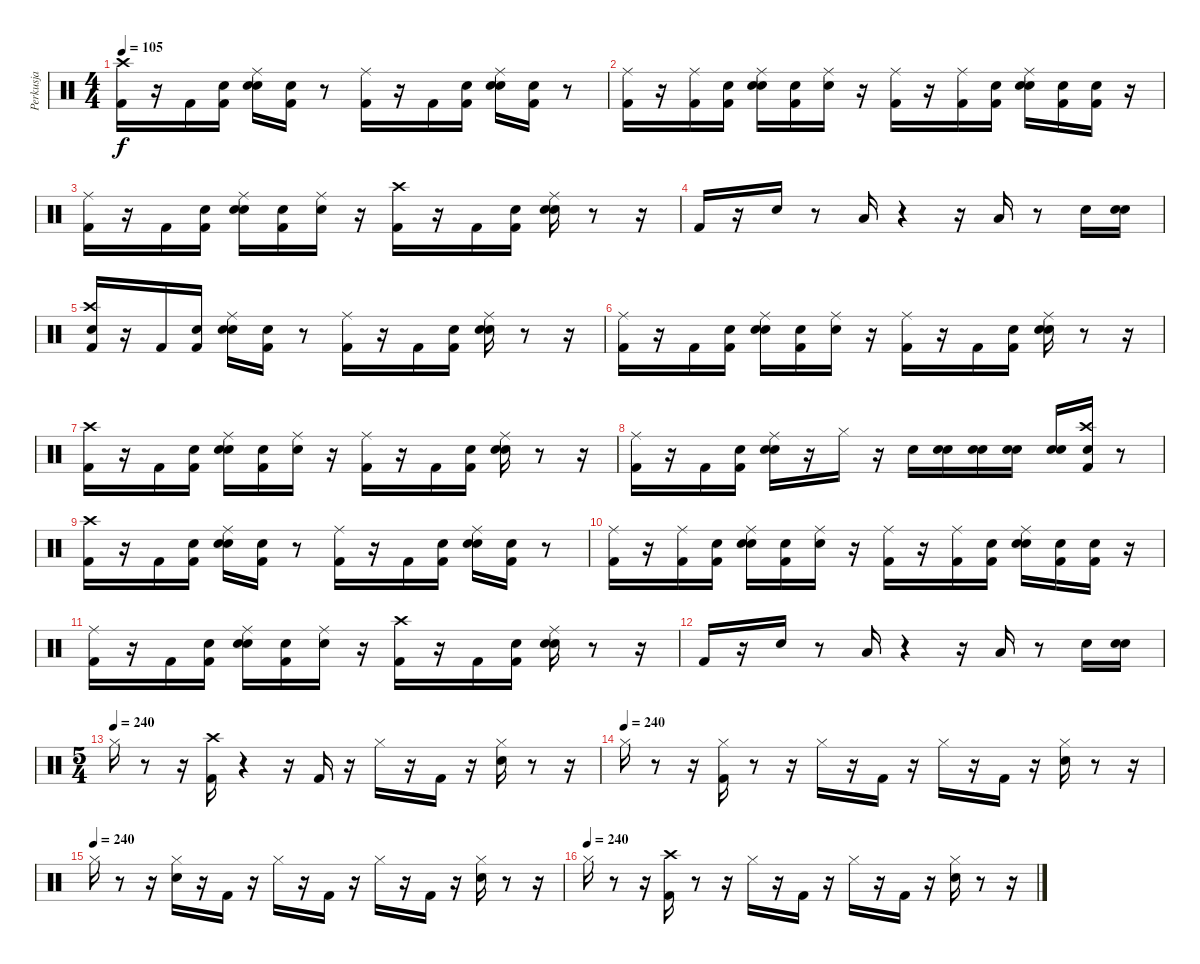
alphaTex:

\track ("Perkusja" "Perkusja") {instrument percussion}
\staff {score}
\articulation defaults
\ts (4 4)
\tempo 105
\clef neutral
\ks c
("Kick (hit) 2" "Crash high (hit)").16{dy f} r.16 "Kick (hit) 2".16 ("Snare (hit)" "Kick (hit) 2").16 ("Snare (hit)" "Snare (hit) 2" "Ride (middle)").16 ("Snare (hit)" "Kick (hit) 2").16 r.8 ("Kick (hit) 2" "Ride (middle)").16 r.16 "Kick (hit) 2".16 ("Snare (hit)" "Kick (hit) 2").16 ("Snare (hit)" "Snare (hit) 2" "Ride (middle)").16 ("Snare (hit)" "Kick (hit) 2").16 r.8 |
("Kick (hit) 2" "Ride (middle)").16 r.16 ("Kick (hit) 2" "Ride (middle)").16 ("Snare (hit)" "Kick (hit) 2").16 ("Snare (hit)" "Snare (hit) 2" "Ride (middle)").16 ("Snare (hit)" "Kick (hit) 2").16 ("Snare (hit)" "Ride (middle)").16 r.16 ("Kick (hit) 2" "Ride (middle)").16 r.16 ("Kick (hit) 2" "Ride (middle)").16 ("Snare (hit)" "Kick (hit) 2").16 ("Snare (hit)" "Snare (hit) 2" "Ride (middle)").16 ("Snare (hit)" "Kick (hit) 2").16 ("Snare (hit)" "Kick (hit) 2").16 r.16 |
("Kick (hit) 2" "Ride (middle)").16 r.16 "Kick (hit) 2".16 ("Snare (hit)" "Kick (hit) 2").16 ("Snare (hit)" "Snare (hit) 2" "Ride (middle)").16 ("Snare (hit)" "Kick (hit) 2").16 ("Snare (hit)" "Ride (middle)").16 r.16 ("Kick (hit) 2" "Crash high (hit)").16 r.16 "Kick (hit) 2".16 ("Snare (hit)" "Kick (hit) 2").16 ("Snare (hit)" "Snare (hit) 2" "Ride (middle)").16 r.8 r.16 |
"Kick (hit) 2".16 r.16 "Snare (hit) 2".16 r.8 "Low Tom (hit)".16 r.4 r.16 "Low Floor Tom (hit)".16 r.8 "Snare (hit) 2".16 ("Snare (hit)" "Snare (hit) 2").16 |
("Snare (hit)" "Kick (hit) 2" "Crash high (hit)").16 r.16 "Kick (hit) 2".16 ("Snare (hit)" "Kick (hit) 2").16 ("Snare (hit)" "Snare (hit) 2" "Ride (middle)").16 ("Snare (hit)" "Kick (hit) 2").16 r.8 ("Kick (hit) 2" "Ride (middle)").16 r.16 "Kick (hit) 2".16 ("Snare (hit)" "Kick (hit) 2").16 ("Snare (hit)" "Snare (hit) 2" "Ride (middle)").16 r.8 r.16 |
("Kick (hit) 2" "Ride (middle)").16 r.16 "Kick (hit) 2".16 ("Snare (hit)" "Kick (hit) 2").16 ("Snare (hit)" "Snare (hit) 2" "Ride (middle)").16 ("Snare (hit)" "Kick (hit) 2").16 ("Snare (hit)" "Ride (middle)").16 r.16 ("Kick (hit) 2" "Ride (middle)").16 r.16 "Kick (hit) 2".16 ("Snare (hit)" "Kick (hit) 2").16 ("Snare (hit)" "Snare (hit) 2" "Ride (middle)").16 r.8 r.16 |
("Kick (hit) 2" "Crash high (hit)").16 r.16 "Kick (hit) 2".16 ("Snare (hit)" "Kick (hit) 2").16 ("Snare (hit)" "Snare (hit) 2" "Ride (middle)").16 ("Snare (hit)" "Kick (hit) 2").16 ("Snare (hit)" "Ride (middle)").16 r.16 ("Kick (hit) 2" "Ride (middle)").16 r.16 "Kick (hit) 2".16 ("Snare (hit)" "Kick (hit) 2").16 ("Snare (hit)" "Snare (hit) 2" "Ride (middle)").16 r.8 r.16 |
("Kick (hit) 2" "Ride (middle)").16 r.16 "Kick (hit) 2".16 ("Snare (hit)" "Kick (hit) 2").16 ("Snare (hit)" "Snare (hit) 2" "Ride (middle)").16 r.16 "Hi-Hat (closed)".16 r.16 "Snare (hit) 2".16 ("Snare (hit)" "Snare (hit) 2").16 ("Snare (hit)" "Snare (hit) 2").16 ("Snare (hit)" "Snare (hit) 2").16 ("Snare (hit)" "Snare (hit) 2").16 ("Snare (hit)" "Kick (hit) 2" "Crash high (hit)").16 r.8 |
("Kick (hit) 2" "Crash high (hit)").16 r.16 "Kick (hit) 2".16 ("Snare (hit)" "Kick (hit) 2").16 ("Snare (hit)" "Snare (hit) 2" "Ride (middle)").16 ("Snare (hit)" "Kick (hit) 2").16 r.8 ("Kick (hit) 2" "Ride (middle)").16 r.16 "Kick (hit) 2".16 ("Snare (hit)" "Kick (hit) 2").16 ("Snare (hit)" "Snare (hit) 2" "Ride (middle)").16 ("Snare (hit)" "Kick (hit) 2").16 r.8 |
("Kick (hit) 2" "Ride (middle)").16 r.16 ("Kick (hit) 2" "Ride (middle)").16 ("Snare (hit)" "Kick (hit) 2").16 ("Snare (hit)" "Snare (hit) 2" "Ride (middle)").16 ("Snare (hit)" "Kick (hit) 2").16 ("Snare (hit)" "Ride (middle)").16 r.16 ("Kick (hit) 2" "Ride (middle)").16 r.16 ("Kick (hit) 2" "Ride (middle)").16 ("Snare (hit)" "Kick (hit) 2").16 ("Snare (hit)" "Snare (hit) 2" "Ride (middle)").16 ("Snare (hit)" "Kick (hit) 2").16 ("Snare (hit)" "Kick (hit) 2").16 r.16 |
("Kick (hit) 2" "Ride (middle)").16 r.16 "Kick (hit) 2".16 ("Snare (hit)" "Kick (hit) 2").16 ("Snare (hit)" "Snare (hit) 2" "Ride (middle)").16 ("Snare (hit)" "Kick (hit) 2").16 ("Snare (hit)" "Ride (middle)").16 r.16 ("Kick (hit) 2" "Crash high (hit)").16 r.16 "Kick (hit) 2".16 ("Snare (hit)" "Kick (hit) 2").16 ("Snare (hit)" "Snare (hit) 2" "Ride (middle)").16 r.8 r.16 |
"Kick (hit) 2".16 r.16 "Snare (hit) 2".16 r.8 "Low Tom (hit)".16 r.4 r.16 "Low Floor Tom (hit)".16 r.8 "Snare (hit) 2".16 ("Snare (hit)" "Snare (hit) 2").16 |
\ts (5 4)
\tempo (240)
"Hi-Hat (closed)".16 r.8 r.16 ("Kick (hit) 2" "Crash high (hit)").16 r.4 r.16 "Kick (hit) 2".16 r.16 "Hi-Hat (closed)".16 r.16 "Kick (hit) 2".16 r.16 ("Snare (hit) 2" "Hi-Hat (closed)").16 r.8 r.16 |
\tempo (240)
"Hi-Hat (closed)".16 r.8 r.16 ("Kick (hit) 2" "Hi-Hat (closed)").16 r.8 r.16 "Hi-Hat (closed)".16 r.16 "Kick (hit) 2".16 r.16 "Hi-Hat (closed)".16 r.16 "Kick (hit) 2".16 r.16 ("Snare (hit) 2" "Hi-Hat (closed)").16 r.8 r.16 |
\tempo (240)
"Hi-Hat (closed)".16 r.8 r.16 ("Snare (hit) 2" "Hi-Hat (closed)").16 r.16 "Kick (hit) 2".16 r.16 "Hi-Hat (closed)".16 r.16 "Kick (hit) 2".16 r.16 "Hi-Hat (closed)".16 r.16 "Kick (hit) 2".16 r.16 ("Snare (hit) 2" "Hi-Hat (closed)").16 r.8 r.16 |
\tempo (240)
"Hi-Hat (closed)".16 r.8 r.16 ("Kick (hit) 2" "Crash high (hit)").16 r.8 r.16 "Hi-Hat (closed)".16 r.16 "Kick (hit) 2".16 r.16 "Hi-Hat (closed)".16 r.16 "Kick (hit) 2".16 r.16 ("Snare (hit) 2" "Hi-Hat (closed)").16 r.8 r.16
